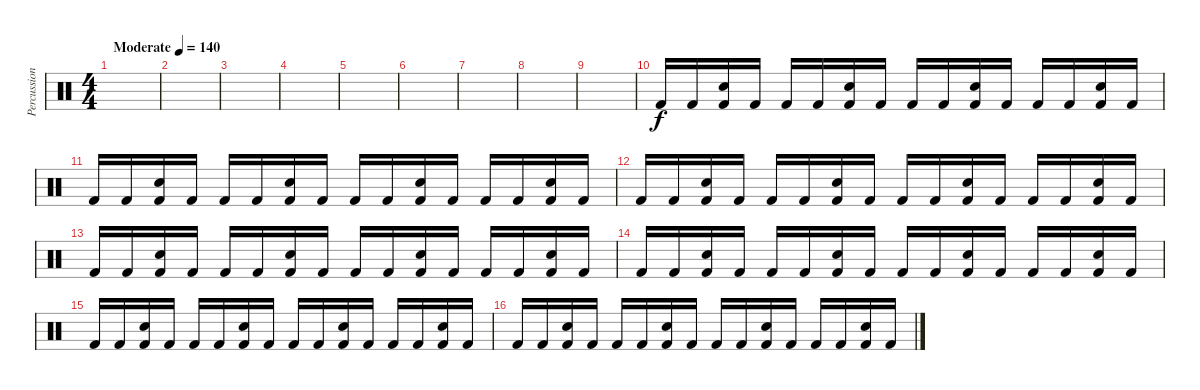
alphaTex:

\track ("Percussion" "Percussion") {instrument percussion}
\staff {score}
\articulation defaults
\ts (4 4)
\tempo (140 "Moderate")
\clef neutral
\ks c
|
|
|
|
|
|
|
|
|
"Kick (hit) 2".16 "Kick (hit) 2".16 ("Snare (hit) 2" "Kick (hit) 2").16 "Kick (hit) 2".16 "Kick (hit) 2".16 "Kick (hit) 2".16 ("Snare (hit) 2" "Kick (hit) 2").16 "Kick (hit) 2".16 "Kick (hit) 2".16 "Kick (hit) 2".16 ("Snare (hit) 2" "Kick (hit) 2").16 "Kick (hit) 2".16 "Kick (hit) 2".16 "Kick (hit) 2".16 ("Snare (hit) 2" "Kick (hit) 2").16 "Kick (hit) 2".16 |
"Kick (hit) 2".16 "Kick (hit) 2".16 ("Snare (hit) 2" "Kick (hit) 2").16 "Kick (hit) 2".16 "Kick (hit) 2".16 "Kick (hit) 2".16 ("Snare (hit) 2" "Kick (hit) 2").16 "Kick (hit) 2".16 "Kick (hit) 2".16 "Kick (hit) 2".16 ("Snare (hit) 2" "Kick (hit) 2").16 "Kick (hit) 2".16 "Kick (hit) 2".16 "Kick (hit) 2".16 ("Snare (hit) 2" "Kick (hit) 2").16 "Kick (hit) 2".16 |
"Kick (hit) 2".16 "Kick (hit) 2".16 ("Snare (hit) 2" "Kick (hit) 2").16 "Kick (hit) 2".16 "Kick (hit) 2".16 "Kick (hit) 2".16 ("Snare (hit) 2" "Kick (hit) 2").16 "Kick (hit) 2".16 "Kick (hit) 2".16 "Kick (hit) 2".16 ("Snare (hit) 2" "Kick (hit) 2").16 "Kick (hit) 2".16 "Kick (hit) 2".16 "Kick (hit) 2".16 ("Snare (hit) 2" "Kick (hit) 2").16 "Kick (hit) 2".16 |
"Kick (hit) 2".16 "Kick (hit) 2".16 ("Snare (hit) 2" "Kick (hit) 2").16 "Kick (hit) 2".16 "Kick (hit) 2".16 "Kick (hit) 2".16 ("Snare (hit) 2" "Kick (hit) 2").16 "Kick (hit) 2".16 "Kick (hit) 2".16 "Kick (hit) 2".16 ("Snare (hit) 2" "Kick (hit) 2").16 "Kick (hit) 2".16 "Kick (hit) 2".16 "Kick (hit) 2".16 ("Snare (hit) 2" "Kick (hit) 2").16 "Kick (hit) 2".16 |
"Kick (hit) 2".16 "Kick (hit) 2".16 ("Snare (hit) 2" "Kick (hit) 2").16 "Kick (hit) 2".16 "Kick (hit) 2".16 "Kick (hit) 2".16 ("Snare (hit) 2" "Kick (hit) 2").16 "Kick (hit) 2".16 "Kick (hit) 2".16 "Kick (hit) 2".16 ("Snare (hit) 2" "Kick (hit) 2").16 "Kick (hit) 2".16 "Kick (hit) 2".16 "Kick (hit) 2".16 ("Snare (hit) 2" "Kick (hit) 2").16 "Kick (hit) 2".16 |
"Kick (hit) 2".16 "Kick (hit) 2".16 ("Snare (hit) 2" "Kick (hit) 2").16 "Kick (hit) 2".16 "Kick (hit) 2".16 "Kick (hit) 2".16 ("Snare (hit) 2" "Kick (hit) 2").16 "Kick (hit) 2".16 "Kick (hit) 2".16 "Kick (hit) 2".16 ("Snare (hit) 2" "Kick (hit) 2").16 "Kick (hit) 2".16 "Kick (hit) 2".16 "Kick (hit) 2".16 ("Snare (hit) 2" "Kick (hit) 2").16 "Kick (hit) 2".16 |
"Kick (hit) 2".16 "Kick (hit) 2".16 ("Snare (hit) 2" "Kick (hit) 2").16 "Kick (hit) 2".16 "Kick (hit) 2".16 "Kick (hit) 2".16 ("Snare (hit) 2" "Kick (hit) 2").16 "Kick (hit) 2".16 "Kick (hit) 2".16 "Kick (hit) 2".16 ("Snare (hit) 2" "Kick (hit) 2").16 "Kick (hit) 2".16 "Kick (hit) 2".16 "Kick (hit) 2".16 ("Snare (hit) 2" "Kick (hit) 2").16 "Kick (hit) 2".16
